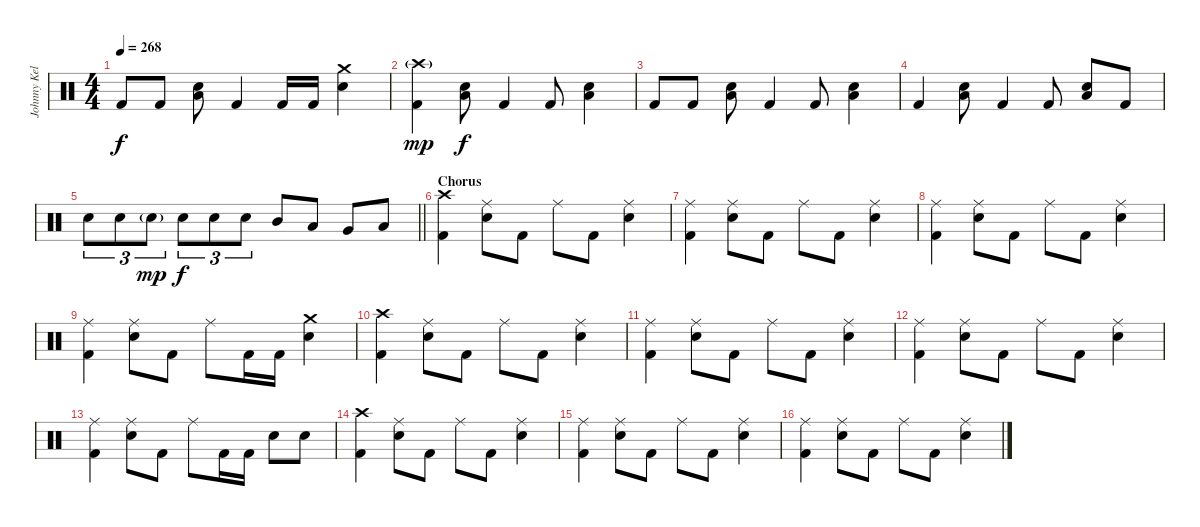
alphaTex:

\track ("Johnny Kelly" "Johnny Kel") {instrument percussion}
\staff {score}
\articulation defaults
\ts (4 4)
\tempo 268
\clef neutral
\ks c "Kick (hit) 2".8{dy f} "Kick (hit) 2".8
("Electric Snare (hit)" "Low Floor Tom (hit)").8 "Kick (hit) 2".4 "Kick (hit) 2".16 "Kick (hit) 2".16 ("Crash medium (hit)" "Electric Snare (hit)").4 |
("Crash high (hit)"{g} "Kick (hit) 2").4{dy mp} ("Electric Snare (hit)" "Low Floor Tom (hit)").8{dy f} "Kick (hit) 2".4 "Kick (hit) 2".8 ("Electric Snare (hit)" "Low Floor Tom (hit)").4 |
"Kick (hit) 2".8 "Kick (hit) 2".8 ("Electric Snare (hit)" "Low Floor Tom (hit)").8 "Kick (hit) 2".4 "Kick (hit) 2".8 ("Electric Snare (hit)" "Low Floor Tom (hit)").4 |
"Kick (hit) 2".4 ("Electric Snare (hit)" "Low Floor Tom (hit)").8 "Kick (hit) 2".4 "Kick (hit) 2".8 ("Electric Snare (hit)" "Low Floor Tom (hit)").8 "Kick (hit) 2".8 |
\barLineRight lightlight "Electric Snare (hit)".8{tu (3 2)} "Electric Snare (hit)".8{tu (3 2)} "Electric Snare (hit)"{g}.8{tu (3 2) dy mp} "Electric Snare (hit)".8{tu (3 2) dy f} "Electric Snare (hit)".8{tu (3 2)} "Electric Snare (hit)".8{tu (3 2)} "Mid Tom (hit)".8 "Low Tom (hit)".8 "Very Low Tom (hit)".8 "Low Floor Tom (hit)".8
|
\section ("" "Chorus")
("Crash high (hit)" "Kick (hit) 2").4 ("Ride (middle)" "Electric Snare (hit)").8 "Kick (hit) 2".8 "Ride (middle)".8 "Kick (hit) 2".8 ("Ride (middle)" "Electric Snare (hit)").4 |
("Ride (middle)" "Kick (hit) 2").4 ("Ride (middle)" "Electric Snare (hit)").8 "Kick (hit) 2".8 "Ride (middle)".8 "Kick (hit) 2".8 ("Ride (middle)" "Electric Snare (hit)").4 |
("Ride (middle)" "Kick (hit) 2").4 ("Ride (middle)" "Electric Snare (hit)").8 "Kick (hit) 2".8 "Ride (middle)".8 "Kick (hit) 2".8 ("Ride (middle)" "Electric Snare (hit)").4 |
("Ride (middle)" "Kick (hit) 2").4 ("Ride (middle)" "Electric Snare (hit)").8 "Kick (hit) 2".8 "Ride (middle)".8 "Kick (hit) 2".16 "Kick (hit) 2".16 ("Crash medium (hit)" "Electric Snare (hit)").4 |
("Crash high (hit)" "Kick (hit) 2").4 ("Ride (middle)" "Electric Snare (hit)").8 "Kick (hit) 2".8 "Ride (middle)".8 "Kick (hit) 2".8 ("Ride (middle)" "Electric Snare (hit)").4 |
("Ride (middle)" "Kick (hit) 2").4 ("Ride (middle)" "Electric Snare (hit)").8 "Kick (hit) 2".8 "Ride (middle)".8 "Kick (hit) 2".8 ("Ride (middle)" "Electric Snare (hit)").4 |
("Ride (middle)" "Kick (hit) 2").4 ("Ride (middle)" "Electric Snare (hit)").8 "Kick (hit) 2".8 "Ride (middle)".8 "Kick (hit) 2".8 ("Ride (middle)" "Electric Snare (hit)").4 |
("Ride (middle)" "Kick (hit) 2").4 ("Ride (middle)" "Electric Snare (hit)").8 "Kick (hit) 2".8 "Ride (middle)".8 "Kick (hit) 2".16 "Kick (hit) 2".16 "Electric Snare (hit)".8 "Electric Snare (hit)".8 |
("Crash high (hit)" "Kick (hit) 2").4 ("Ride (middle)" "Electric Snare (hit)").8 "Kick (hit) 2".8 "Ride (middle)".8 "Kick (hit) 2".8 ("Ride (middle)" "Electric Snare (hit)").4 |
("Ride (middle)" "Kick (hit) 2").4 ("Ride (middle)" "Electric Snare (hit)").8 "Kick (hit) 2".8 "Ride (middle)".8 "Kick (hit) 2".8 ("Ride (middle)" "Electric Snare (hit)").4 |
("Ride (middle)" "Kick (hit) 2").4 ("Ride (middle)" "Electric Snare (hit)").8 "Kick (hit) 2".8 "Ride (middle)".8 "Kick (hit) 2".8 ("Ride (middle)" "Electric Snare (hit)").4
